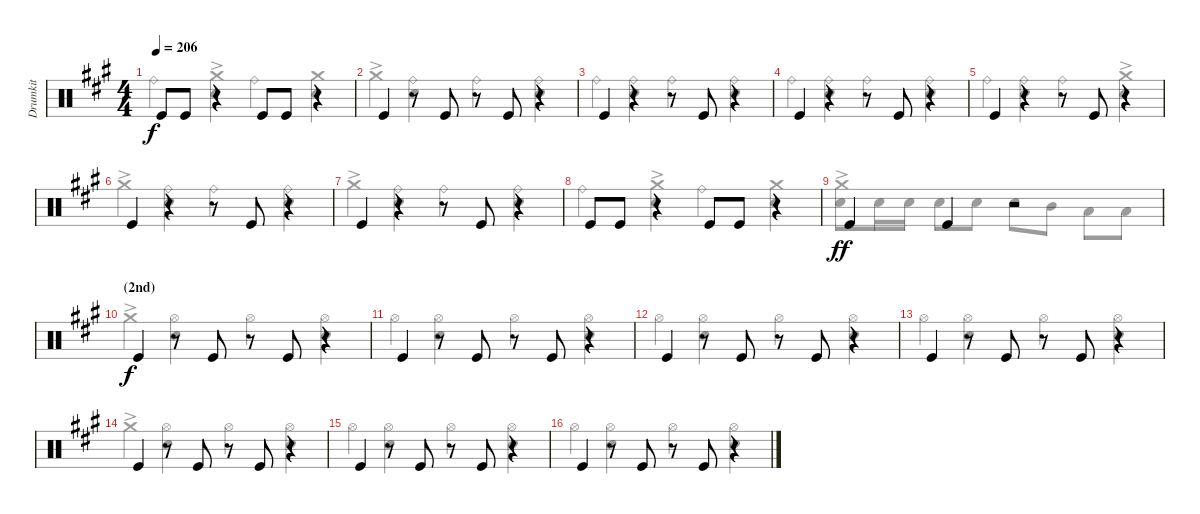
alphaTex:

\track ("Drumkit" "Drumkit") {instrument percussion}
\staff {score}
\articulation defaults
\voice
\ts (4 4)
\tempo 206
\clef neutral
\ks a "Kick (hit)".8{dy f} "Kick (hit)".8
r.4 "Kick (hit)".8 "Kick (hit)".8 r.4 |
"Kick (hit)".4 r.8 "Kick (hit)".8 r.8 "Kick (hit)".8 r.4 |
"Kick (hit)".4 r.4 r.8 "Kick (hit)".8 r.4 |
"Kick (hit)".4 r.4 r.8 "Kick (hit)".8 r.4 |
"Kick (hit)".4 r.4 r.8 "Kick (hit)".8 r.4 |
"Kick (hit)".4 r.4 r.8 "Kick (hit)".8 r.4 |
"Kick (hit)".4 r.4 r.8 "Kick (hit)".8 r.4 |
"Kick (hit)".8 "Kick (hit)".8 r.4 "Kick (hit)".8 "Kick (hit)".8 r.4 |
"Kick (hit)".4{dy ff} "Kick (hit)".4 r.2 |
\section ("" "(2nd)")
"Kick (hit)".4{dy f} r.8 "Kick (hit)".8 r.8 "Kick (hit)".8 r.4 |
"Kick (hit)".4 r.8 "Kick (hit)".8 r.8 "Kick (hit)".8 r.4 |
"Kick (hit)".4 r.8 "Kick (hit)".8 r.8 "Kick (hit)".8 r.4 |
"Kick (hit)".4 r.8 "Kick (hit)".8 r.8 "Kick (hit)".8 r.4 |
"Kick (hit)".4 r.8 "Kick (hit)".8 r.8 "Kick (hit)".8 r.4 |
"Kick (hit)".4 r.8 "Kick (hit)".8 r.8 "Kick (hit)".8 r.4 |
"Kick (hit)".4 r.8 "Kick (hit)".8 r.8 "Kick (hit)".8 r.4
\voice
\clef neutral
\ottava regular
\simile none
\ks a "Ride (bell)".4{dy f}
("Crash medium (hit)"{ac} "Snare (hit) 2").4 "Ride (bell)".4 ("Crash medium (hit)" "Snare (hit) 2").4 |
"Crash medium (hit)"{ac}.4 ("Snare (hit) 2" "Ride (bell)").4 "Ride (bell)".4 ("Ride (bell)" "Snare (hit) 2").4 |
"Ride (bell)".4 ("Snare (hit) 2" "Ride (bell)").4 "Ride (bell)".4 ("Ride (bell)" "Snare (hit) 2").4 |
"Ride (bell)".4 ("Snare (hit) 2" "Ride (bell)").4 "Ride (bell)".4 ("Ride (bell)" "Snare (hit) 2").4 |
"Ride (bell)".4 ("Snare (hit) 2" "Ride (bell)").4 "Ride (bell)".4 ("Snare (hit) 2" "Crash medium (hit)"{ac}).4 |
"Crash medium (hit)"{ac}.4 ("Snare (hit) 2" "Ride (bell)").4 "Ride (bell)".4 ("Ride (bell)" "Snare (hit) 2").4 |
"Crash medium (hit)"{ac}.4 ("Snare (hit) 2" "Ride (bell)").4 "Ride (bell)".4 ("Ride (bell)" "Snare (hit) 2").4 |
"Ride (bell)".4 ("Crash medium (hit)"{ac} "Snare (hit) 2").4 "Ride (bell)".4 ("Crash medium (hit)" "Snare (hit) 2").4 |
("Snare (hit) 2" "Crash medium (hit)"{ac}).8{dy ff} "Snare (hit) 2".16 "Snare (hit) 2".16 "Snare (hit) 2".8 "Snare (hit) 2".8 "Snare (hit) 2".8 "Mid Tom (hit)".8 "Low Tom (hit)".8 "Low Tom (hit)".8 |
"Crash medium (hit)"{ac}.4{dy f} ("Hi-Hat (open)" "Snare (hit) 2").4 "Hi-Hat (open)".4 ("Hi-Hat (open)" "Snare (hit) 2").4 |
"Hi-Hat (open)".4 ("Hi-Hat (open)" "Snare (hit) 2").4 "Hi-Hat (open)".4 ("Hi-Hat (open)" "Snare (hit) 2").4 |
"Hi-Hat (open)".4 ("Hi-Hat (open)" "Snare (hit) 2").4 "Hi-Hat (open)".4 ("Hi-Hat (open)" "Snare (hit) 2").4 |
"Hi-Hat (open)".4 ("Hi-Hat (open)" "Snare (hit) 2").4 "Hi-Hat (open)".4 ("Hi-Hat (open)" "Snare (hit) 2").4 |
"Crash medium (hit)"{ac}.4 ("Hi-Hat (open)" "Snare (hit) 2").4 "Hi-Hat (open)".4 ("Hi-Hat (open)" "Snare (hit) 2").4 |
"Hi-Hat (open)".4 ("Hi-Hat (open)" "Snare (hit) 2").4 "Hi-Hat (open)".4 ("Hi-Hat (open)" "Snare (hit) 2").4 |
"Hi-Hat (open)".4 ("Hi-Hat (open)" "Snare (hit) 2").4 "Hi-Hat (open)".4 ("Hi-Hat (open)" "Snare (hit) 2").4
